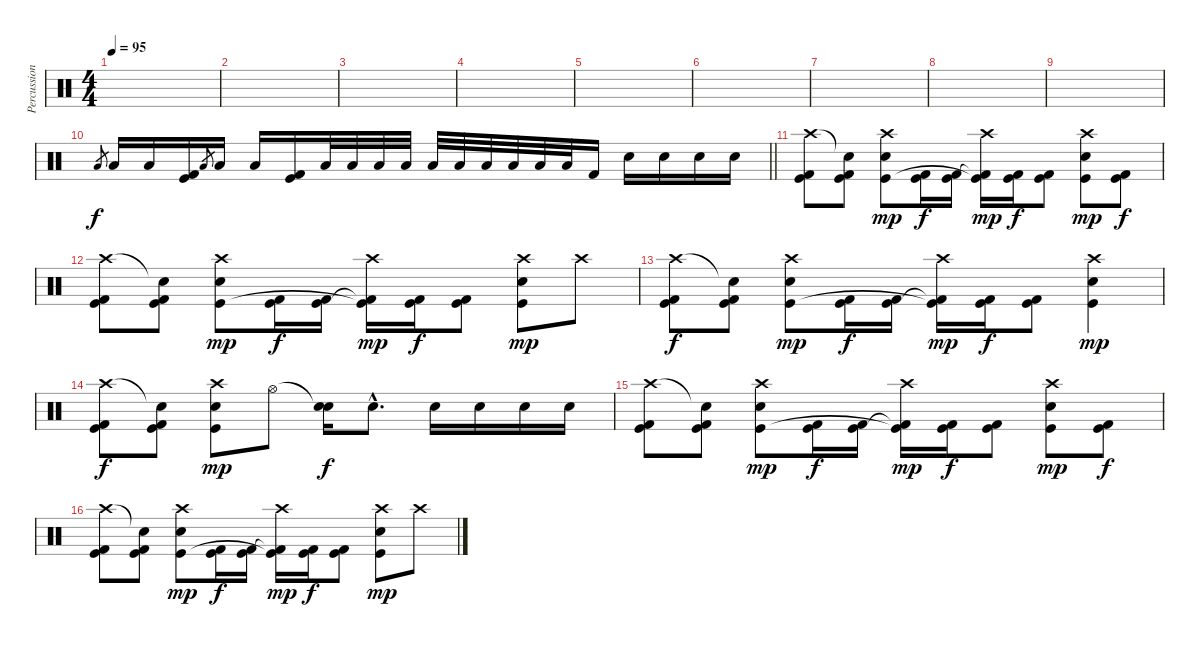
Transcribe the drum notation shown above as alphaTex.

\track ("Percussion" "Percussion") {instrument percussion}
\staff {score}
\articulation defaults
\ts (4 4)
\tempo 95
\clef neutral
\ks c
|
|
|
|
|
|
|
|
|
\barLineRight lightlight "Low Tom (hit)".8{gr} "Low Tom (hit)".16 "Low Tom (hit)".16
("Kick (hit) 2" "Kick (hit)").16 "Low Tom (hit)".8{gr} "Low Tom (hit)".16 "Low Tom (hit)".16 ("Kick (hit) 2" "Kick (hit)").16 "Low Tom (hit)".32 "Low Tom (hit)".32 "Low Tom (hit)".32 "Low Tom (hit)".32 "Low Tom (hit)".32 "Low Tom (hit)".32 "Low Tom (hit)".32 "Low Tom (hit)".32 "Low Tom (hit)".32 "Low Tom (hit)".32 "Kick (hit) 2".16 "Snare (hit) 2".16 "Snare (hit) 2".16 "Snare (hit) 2".16 "Snare (hit) 2".16 |
("Crash high (hit)" "Kick (hit) 2" "Kick (hit)").8 ("Snare (hit)"{t} "Kick (hit) 2" "Kick (hit)").8 ("Crash high (hit)" "Snare (hit) 2" "Kick (hit)").8{dy mp} ("Kick (hit) 2" "Kick (hit)").16{dy f} ("Kick (hit) 2" "Kick (hit)").16 ("Crash high (hit)" "Kick (hit) 2"{t} "Kick (hit)"{t}).16{dy mp} ("Kick (hit) 2" "Kick (hit)").16{dy f} ("Kick (hit)" "Kick (hit) 2").8 ("Crash high (hit)" "Snare (hit) 2" "Kick (hit)").8{dy mp} ("Kick (hit)" "Kick (hit) 2").8{dy f} |
("Crash high (hit)" "Kick (hit) 2" "Kick (hit)").8 ("Snare (hit)"{t} "Kick (hit) 2" "Kick (hit)").8 ("Crash high (hit)" "Snare (hit) 2" "Kick (hit)").8{dy mp} ("Kick (hit) 2" "Kick (hit)").16{dy f} ("Kick (hit) 2" "Kick (hit)").16 ("Crash high (hit)" "Kick (hit) 2"{t} "Kick (hit)"{t}).16{dy mp} ("Kick (hit) 2" "Kick (hit)").16{dy f} ("Kick (hit)" "Kick (hit) 2").8 ("Crash high (hit)" "Snare (hit) 2" "Kick (hit)").8{dy mp} "Crash high (hit)".8 |
("Crash high (hit)" "Kick (hit) 2" "Kick (hit)").8{dy f} ("Snare (hit)"{t} "Kick (hit) 2" "Kick (hit)").8 ("Crash high (hit)" "Snare (hit) 2" "Kick (hit)").8{dy mp} ("Kick (hit) 2" "Kick (hit)").16{dy f} ("Kick (hit) 2" "Kick (hit)").16 ("Crash high (hit)" "Kick (hit) 2"{t} "Kick (hit)"{t}).16{dy mp} ("Kick (hit) 2" "Kick (hit)").16{dy f} ("Kick (hit)" "Kick (hit) 2").8 ("Crash high (hit)" "Snare (hit) 2" "Kick (hit)").4{dy mp} |
("Crash high (hit)" "Kick (hit) 2" "Kick (hit)").8{dy f} ("Snare (hit)"{t} "Kick (hit) 2" "Kick (hit)").8 ("Crash high (hit)" "Snare (hit) 2" "Kick (hit)").8{dy mp} "Hi-Hat (open)".8 ("Snare (hit)"{t} "Snare (hit) 2").16{dy f} "Snare (hit) 2"{hac}.8{d} "Snare (hit) 2".16 "Snare (hit) 2".16 "Snare (hit) 2".16 "Snare (hit) 2".16 |
("Crash high (hit)" "Kick (hit) 2" "Kick (hit)").8 ("Snare (hit)"{t} "Kick (hit) 2" "Kick (hit)").8 ("Crash high (hit)" "Snare (hit) 2" "Kick (hit)").8{dy mp} ("Kick (hit) 2" "Kick (hit)").16{dy f} ("Kick (hit) 2" "Kick (hit)").16 ("Crash high (hit)" "Kick (hit) 2"{t} "Kick (hit)"{t}).16{dy mp} ("Kick (hit) 2" "Kick (hit)").16{dy f} ("Kick (hit)" "Kick (hit) 2").8 ("Crash high (hit)" "Snare (hit) 2" "Kick (hit)").8{dy mp} ("Kick (hit)" "Kick (hit) 2").8{dy f} |
("Crash high (hit)" "Kick (hit) 2" "Kick (hit)").8 ("Snare (hit)"{t} "Kick (hit) 2" "Kick (hit)").8 ("Crash high (hit)" "Snare (hit) 2" "Kick (hit)").8{dy mp} ("Kick (hit) 2" "Kick (hit)").16{dy f} ("Kick (hit) 2" "Kick (hit)").16 ("Crash high (hit)" "Kick (hit) 2"{t} "Kick (hit)"{t}).16{dy mp} ("Kick (hit) 2" "Kick (hit)").16{dy f} ("Kick (hit)" "Kick (hit) 2").8 ("Crash high (hit)" "Snare (hit) 2" "Kick (hit)").8{dy mp} "Crash high (hit)".8
